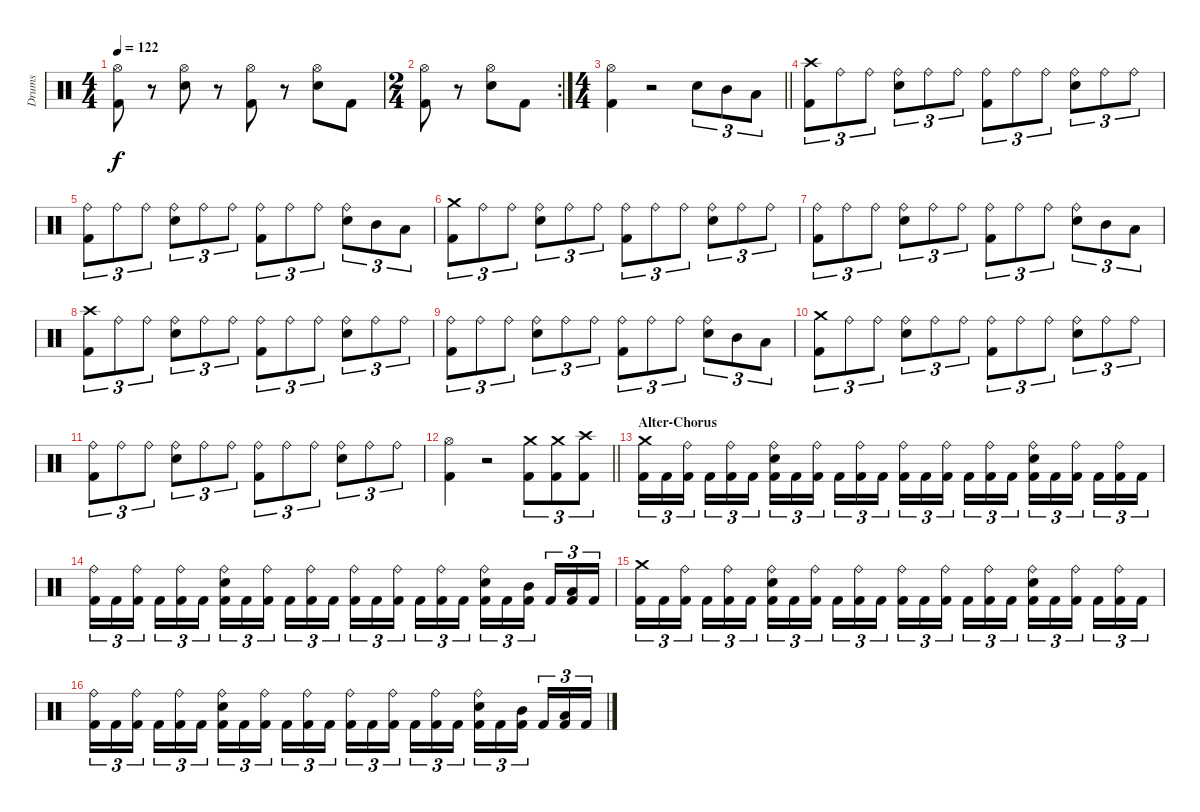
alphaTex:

\track ("Drums" "Drums") {instrument percussion}
\staff
\articulation defaults
\ts (4 4)
\tempo 122
\clef neutral
\ks c
("Hi-Hat (open)" "Kick (hit) 2").8{dy f} r.8 ("Hi-Hat (open)" "Electric Snare (hit)").8 r.8 ("Hi-Hat (open)" "Kick (hit) 2").8 r.8 ("Hi-Hat (open)" "Electric Snare (hit)").8 "Kick (hit) 2".8 |
\rc 2
\ts (2 4)
("Hi-Hat (open)" "Kick (hit) 2").8 r.8 ("Hi-Hat (open)" "Electric Snare (hit)").8 "Kick (hit) 2".8 |
\ts (4 4)
\barLineRight lightlight
("Hi-Hat (open)" "Kick (hit) 2").4 r.2 "Electric Snare (hit)".8{tu (3 2)} "Mid Tom (hit)".8{tu (3 2)} "Low Tom (hit)".8{tu (3 2)} |
("Crash high (hit)" "Kick (hit) 2").8{tu (3 2)} "Ride (bell)".8{tu (3 2)} "Ride (bell)".8{tu (3 2)} ("Ride (bell)" "Electric Snare (hit)").8{tu (3 2)} "Ride (bell)".8{tu (3 2)} "Ride (bell)".8{tu (3 2)} ("Ride (bell)" "Kick (hit) 2").8{tu (3 2)} "Ride (bell)".8{tu (3 2)} "Ride (bell)".8{tu (3 2)} ("Ride (bell)" "Electric Snare (hit)").8{tu (3 2)} "Ride (bell)".8{tu (3 2)} "Ride (bell)".8{tu (3 2)} |
("Ride (bell)" "Kick (hit) 2").8{tu (3 2)} "Ride (bell)".8{tu (3 2)} "Ride (bell)".8{tu (3 2)} ("Ride (bell)" "Electric Snare (hit)").8{tu (3 2)} "Ride (bell)".8{tu (3 2)} "Ride (bell)".8{tu (3 2)} ("Ride (bell)" "Kick (hit) 2").8{tu (3 2)} "Ride (bell)".8{tu (3 2)} "Ride (bell)".8{tu (3 2)} ("Ride (bell)" "Electric Snare (hit)").8{tu (3 2)} "Mid Tom (hit)".8{tu (3 2)} "Low Tom (hit)".8{tu (3 2)} |
("Crash medium (hit)" "Kick (hit) 2").8{tu (3 2)} "Ride (bell)".8{tu (3 2)} "Ride (bell)".8{tu (3 2)} ("Ride (bell)" "Electric Snare (hit)").8{tu (3 2)} "Ride (bell)".8{tu (3 2)} "Ride (bell)".8{tu (3 2)} ("Ride (bell)" "Kick (hit) 2").8{tu (3 2)} "Ride (bell)".8{tu (3 2)} "Ride (bell)".8{tu (3 2)} ("Ride (bell)" "Electric Snare (hit)").8{tu (3 2)} "Ride (bell)".8{tu (3 2)} "Ride (bell)".8{tu (3 2)} |
("Ride (bell)" "Kick (hit) 2").8{tu (3 2)} "Ride (bell)".8{tu (3 2)} "Ride (bell)".8{tu (3 2)} ("Ride (bell)" "Electric Snare (hit)").8{tu (3 2)} "Ride (bell)".8{tu (3 2)} "Ride (bell)".8{tu (3 2)} ("Ride (bell)" "Kick (hit) 2").8{tu (3 2)} "Ride (bell)".8{tu (3 2)} "Ride (bell)".8{tu (3 2)} ("Ride (bell)" "Electric Snare (hit)").8{tu (3 2)} "Mid Tom (hit)".8{tu (3 2)} "Low Tom (hit)".8{tu (3 2)} |
("Crash high (hit)" "Kick (hit) 2").8{tu (3 2)} "Ride (bell)".8{tu (3 2)} "Ride (bell)".8{tu (3 2)} ("Ride (bell)" "Electric Snare (hit)").8{tu (3 2)} "Ride (bell)".8{tu (3 2)} "Ride (bell)".8{tu (3 2)} ("Ride (bell)" "Kick (hit) 2").8{tu (3 2)} "Ride (bell)".8{tu (3 2)} "Ride (bell)".8{tu (3 2)} ("Ride (bell)" "Electric Snare (hit)").8{tu (3 2)} "Ride (bell)".8{tu (3 2)} "Ride (bell)".8{tu (3 2)} |
("Ride (bell)" "Kick (hit) 2").8{tu (3 2)} "Ride (bell)".8{tu (3 2)} "Ride (bell)".8{tu (3 2)} ("Ride (bell)" "Electric Snare (hit)").8{tu (3 2)} "Ride (bell)".8{tu (3 2)} "Ride (bell)".8{tu (3 2)} ("Ride (bell)" "Kick (hit) 2").8{tu (3 2)} "Ride (bell)".8{tu (3 2)} "Ride (bell)".8{tu (3 2)} ("Ride (bell)" "Electric Snare (hit)").8{tu (3 2)} "Mid Tom (hit)".8{tu (3 2)} "Low Tom (hit)".8{tu (3 2)} |
("Crash medium (hit)" "Kick (hit) 2").8{tu (3 2)} "Ride (bell)".8{tu (3 2)} "Ride (bell)".8{tu (3 2)} ("Ride (bell)" "Electric Snare (hit)").8{tu (3 2)} "Ride (bell)".8{tu (3 2)} "Ride (bell)".8{tu (3 2)} ("Ride (bell)" "Kick (hit) 2").8{tu (3 2)} "Ride (bell)".8{tu (3 2)} "Ride (bell)".8{tu (3 2)} ("Ride (bell)" "Electric Snare (hit)").8{tu (3 2)} "Ride (bell)".8{tu (3 2)} "Ride (bell)".8{tu (3 2)} |
("Ride (bell)" "Kick (hit) 2").8{tu (3 2)} "Ride (bell)".8{tu (3 2)} "Ride (bell)".8{tu (3 2)} ("Ride (bell)" "Electric Snare (hit)").8{tu (3 2)} "Ride (bell)".8{tu (3 2)} "Ride (bell)".8{tu (3 2)} ("Ride (bell)" "Kick (hit) 2").8{tu (3 2)} "Ride (bell)".8{tu (3 2)} "Ride (bell)".8{tu (3 2)} ("Ride (bell)" "Electric Snare (hit)").8{tu (3 2)} "Ride (bell)".8{tu (3 2)} "Ride (bell)".8{tu (3 2)} |
\barLineRight lightlight
("Hi-Hat (open)" "Kick (hit) 2").4 r.2 ("Crash medium (hit)" "Kick (hit) 2").8{tu (3 2)} ("Crash medium (hit)" "Kick (hit) 2").8{tu (3 2)} ("Crash high (hit)" "Kick (hit) 2").8{tu (3 2)} |
\section ("" "Alter-Chorus")
("Crash medium (hit)" "Kick (hit) 2").16{tu (3 2)} "Kick (hit) 2".16{tu (3 2)} ("Ride (bell)" "Kick (hit) 2").16{tu (3 2) beam splitsecondary} "Kick (hit) 2".16{tu (3 2)} ("Ride (bell)" "Kick (hit) 2").16{tu (3 2)} "Kick (hit) 2".16{tu (3 2)} ("Ride (bell)" "Electric Snare (hit)" "Kick (hit) 2").16{tu (3 2)} "Kick (hit) 2".16{tu (3 2)} ("Ride (bell)" "Kick (hit) 2").16{tu (3 2) beam splitsecondary} "Kick (hit) 2".16{tu (3 2)} ("Ride (bell)" "Kick (hit) 2").16{tu (3 2)} "Kick (hit) 2".16{tu (3 2)} ("Ride (bell)" "Kick (hit) 2").16{tu (3 2)} "Kick (hit) 2".16{tu (3 2)} ("Ride (bell)" "Kick (hit) 2").16{tu (3 2) beam splitsecondary} "Kick (hit) 2".16{tu (3 2)} ("Ride (bell)" "Kick (hit) 2").16{tu (3 2)} "Kick (hit) 2".16{tu (3 2)} ("Ride (bell)" "Electric Snare (hit)" "Kick (hit) 2").16{tu (3 2)} "Kick (hit) 2".16{tu (3 2)} ("Ride (bell)" "Kick (hit) 2").16{tu (3 2) beam splitsecondary} "Kick (hit) 2".16{tu (3 2)} ("Ride (bell)" "Kick (hit) 2").16{tu (3 2)} "Kick (hit) 2".16{tu (3 2)} |
("Ride (bell)" "Kick (hit) 2").16{tu (3 2)} "Kick (hit) 2".16{tu (3 2)} ("Ride (bell)" "Kick (hit) 2").16{tu (3 2) beam splitsecondary} "Kick (hit) 2".16{tu (3 2)} ("Ride (bell)" "Kick (hit) 2").16{tu (3 2)} "Kick (hit) 2".16{tu (3 2)} ("Ride (bell)" "Electric Snare (hit)" "Kick (hit) 2").16{tu (3 2)} "Kick (hit) 2".16{tu (3 2)} ("Ride (bell)" "Kick (hit) 2").16{tu (3 2) beam splitsecondary} "Kick (hit) 2".16{tu (3 2)} ("Ride (bell)" "Kick (hit) 2").16{tu (3 2)} "Kick (hit) 2".16{tu (3 2)} ("Ride (bell)" "Kick (hit) 2").16{tu (3 2)} "Kick (hit) 2".16{tu (3 2)} ("Ride (bell)" "Kick (hit) 2").16{tu (3 2) beam splitsecondary} "Kick (hit) 2".16{tu (3 2)} ("Ride (bell)" "Kick (hit) 2").16{tu (3 2)} "Kick (hit) 2".16{tu (3 2)} ("Ride (bell)" "Electric Snare (hit)" "Kick (hit) 2").16{tu (3 2)} "Kick (hit) 2".16{tu (3 2)} ("Mid Tom (hit)" "Kick (hit) 2").16{tu (3 2) beam splitsecondary} "Kick (hit) 2".16{tu (3 2)} ("Low Tom (hit)" "Kick (hit) 2").16{tu (3 2)} "Kick (hit) 2".16{tu (3 2)} |
("Crash medium (hit)" "Kick (hit) 2").16{tu (3 2)} "Kick (hit) 2".16{tu (3 2)} ("Ride (bell)" "Kick (hit) 2").16{tu (3 2) beam splitsecondary} "Kick (hit) 2".16{tu (3 2)} ("Ride (bell)" "Kick (hit) 2").16{tu (3 2)} "Kick (hit) 2".16{tu (3 2)} ("Ride (bell)" "Electric Snare (hit)" "Kick (hit) 2").16{tu (3 2)} "Kick (hit) 2".16{tu (3 2)} ("Ride (bell)" "Kick (hit) 2").16{tu (3 2) beam splitsecondary} "Kick (hit) 2".16{tu (3 2)} ("Ride (bell)" "Kick (hit) 2").16{tu (3 2)} "Kick (hit) 2".16{tu (3 2)} ("Ride (bell)" "Kick (hit) 2").16{tu (3 2)} "Kick (hit) 2".16{tu (3 2)} ("Ride (bell)" "Kick (hit) 2").16{tu (3 2) beam splitsecondary} "Kick (hit) 2".16{tu (3 2)} ("Ride (bell)" "Kick (hit) 2").16{tu (3 2)} "Kick (hit) 2".16{tu (3 2)} ("Ride (bell)" "Electric Snare (hit)" "Kick (hit) 2").16{tu (3 2)} "Kick (hit) 2".16{tu (3 2)} ("Ride (bell)" "Kick (hit) 2").16{tu (3 2) beam splitsecondary} "Kick (hit) 2".16{tu (3 2)} ("Ride (bell)" "Kick (hit) 2").16{tu (3 2)} "Kick (hit) 2".16{tu (3 2)} |
("Ride (bell)" "Kick (hit) 2").16{tu (3 2)} "Kick (hit) 2".16{tu (3 2)} ("Ride (bell)" "Kick (hit) 2").16{tu (3 2) beam splitsecondary} "Kick (hit) 2".16{tu (3 2)} ("Ride (bell)" "Kick (hit) 2").16{tu (3 2)} "Kick (hit) 2".16{tu (3 2)} ("Ride (bell)" "Electric Snare (hit)" "Kick (hit) 2").16{tu (3 2)} "Kick (hit) 2".16{tu (3 2)} ("Ride (bell)" "Kick (hit) 2").16{tu (3 2) beam splitsecondary} "Kick (hit) 2".16{tu (3 2)} ("Ride (bell)" "Kick (hit) 2").16{tu (3 2)} "Kick (hit) 2".16{tu (3 2)} ("Ride (bell)" "Kick (hit) 2").16{tu (3 2)} "Kick (hit) 2".16{tu (3 2)} ("Ride (bell)" "Kick (hit) 2").16{tu (3 2) beam splitsecondary} "Kick (hit) 2".16{tu (3 2)} ("Ride (bell)" "Kick (hit) 2").16{tu (3 2)} "Kick (hit) 2".16{tu (3 2)} ("Ride (bell)" "Electric Snare (hit)" "Kick (hit) 2").16{tu (3 2)} "Kick (hit) 2".16{tu (3 2)} ("Mid Tom (hit)" "Kick (hit) 2").16{tu (3 2) beam splitsecondary} "Kick (hit) 2".16{tu (3 2)} ("Low Tom (hit)" "Kick (hit) 2").16{tu (3 2)} "Kick (hit) 2".16{tu (3 2)}
